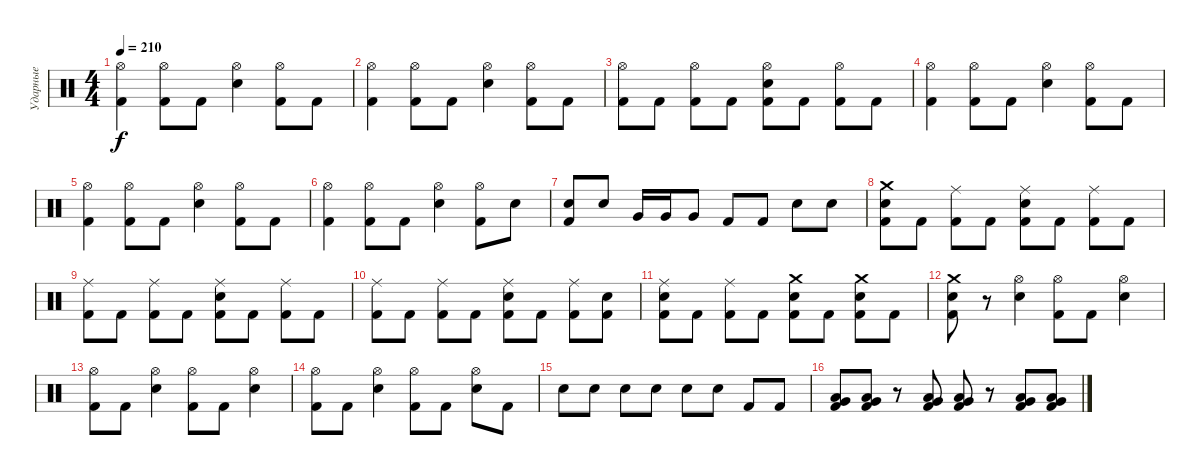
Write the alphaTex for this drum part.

\track ("Ударные" "Ударные") {instrument percussion}
\staff {score}
\articulation defaults
\ts (4 4)
\tempo 210
\clef neutral
\ks c
("Hi-Hat (open)" "Kick (hit) 2").4{dy f} ("Hi-Hat (open)" "Kick (hit) 2").8 "Kick (hit) 2".8 ("Hi-Hat (open)" "Snare (hit) 2").4 ("Hi-Hat (open)" "Kick (hit) 2").8 "Kick (hit) 2".8 |
("Hi-Hat (open)" "Kick (hit) 2").4 ("Hi-Hat (open)" "Kick (hit) 2").8 "Kick (hit) 2".8 ("Hi-Hat (open)" "Snare (hit) 2").4 ("Hi-Hat (open)" "Kick (hit) 2").8 "Kick (hit) 2".8 |
("Hi-Hat (open)" "Kick (hit) 2").8 "Kick (hit) 2".8 ("Hi-Hat (open)" "Kick (hit) 2").8 "Kick (hit) 2".8 ("Hi-Hat (open)" "Snare (hit) 2" "Kick (hit) 2").8 "Kick (hit) 2".8 ("Hi-Hat (open)" "Kick (hit) 2").8 "Kick (hit) 2".8 |
("Hi-Hat (open)" "Kick (hit) 2").4 ("Hi-Hat (open)" "Kick (hit) 2").8 "Kick (hit) 2".8 ("Hi-Hat (open)" "Snare (hit) 2").4 ("Hi-Hat (open)" "Kick (hit) 2").8 "Kick (hit) 2".8 |
("Hi-Hat (open)" "Kick (hit) 2").4 ("Hi-Hat (open)" "Kick (hit) 2").8 "Kick (hit) 2".8 ("Hi-Hat (open)" "Snare (hit) 2").4 ("Hi-Hat (open)" "Kick (hit) 2").8 "Kick (hit) 2".8 |
("Hi-Hat (open)" "Kick (hit) 2").4 ("Hi-Hat (open)" "Kick (hit) 2").8 "Kick (hit) 2".8 ("Hi-Hat (open)" "Snare (hit) 2").4 ("Hi-Hat (open)" "Kick (hit) 2").8 "Snare (hit) 2".8 |
("Snare (hit) 2" "Kick (hit) 2").8 "Snare (hit) 2".8 "Very Low Tom (hit)".16 "Very Low Tom (hit)".16 "Very Low Tom (hit)".8 "Kick (hit) 2".8 "Kick (hit) 2".8 "Snare (hit) 2".8 "Snare (hit) 2".8 |
("Crash medium (hit)" "Snare (hit) 2" "Kick (hit) 2").8 "Kick (hit) 2".8 ("Ride (middle)" "Kick (hit) 2").8 "Kick (hit) 2".8 ("Ride (middle)" "Snare (hit) 2" "Kick (hit) 2").8 "Kick (hit) 2".8 ("Ride (middle)" "Kick (hit) 2").8 "Kick (hit) 2".8 |
("Ride (middle)" "Kick (hit) 2").8 "Kick (hit) 2".8 ("Ride (middle)" "Kick (hit) 2").8 "Kick (hit) 2".8 ("Ride (middle)" "Snare (hit) 2" "Kick (hit) 2").8 "Kick (hit) 2".8 ("Ride (middle)" "Kick (hit) 2").8 "Kick (hit) 2".8 |
("Ride (middle)" "Kick (hit) 2").8 "Kick (hit) 2".8 ("Ride (middle)" "Kick (hit) 2").8 "Kick (hit) 2".8 ("Ride (middle)" "Snare (hit) 2" "Kick (hit) 2").8 "Kick (hit) 2".8 ("Ride (middle)" "Kick (hit) 2").8 ("Snare (hit) 2" "Kick (hit) 2").8 |
("Ride (middle)" "Snare (hit) 2" "Kick (hit) 2").8 "Kick (hit) 2".8 ("Ride (middle)" "Kick (hit) 2").8 "Kick (hit) 2".8 ("Crash medium (hit)" "Snare (hit) 2" "Kick (hit) 2").8 "Kick (hit) 2".8 ("Crash medium (hit)" "Snare (hit) 2" "Kick (hit) 2").8 "Kick (hit) 2".8 |
("Crash medium (hit)" "Snare (hit) 2" "Kick (hit) 2").8 r.8 ("Hi-Hat (open)" "Snare (hit) 2").4 ("Hi-Hat (open)" "Kick (hit) 2").8 "Kick (hit) 2".8 ("Hi-Hat (open)" "Snare (hit) 2").4 |
("Hi-Hat (open)" "Kick (hit) 2").8 "Kick (hit) 2".8 ("Hi-Hat (open)" "Snare (hit) 2").4 ("Hi-Hat (open)" "Kick (hit) 2").8 "Kick (hit) 2".8 ("Hi-Hat (open)" "Snare (hit) 2").4 |
("Hi-Hat (open)" "Kick (hit) 2").8 "Kick (hit) 2".8 ("Hi-Hat (open)" "Snare (hit) 2").4 ("Hi-Hat (open)" "Kick (hit) 2").8 "Kick (hit) 2".8 ("Hi-Hat (open)" "Snare (hit) 2").8 "Kick (hit) 2".8 |
"Snare (hit) 2".8 "Snare (hit) 2".8 "Snare (hit) 2".8 "Snare (hit) 2".8 "Snare (hit) 2".8 "Snare (hit) 2".8 "Kick (hit) 2".8 "Kick (hit) 2".8 |
("Very Low Tom (hit)" "Low Floor Tom (hit)" "Kick (hit) 2").8 ("Very Low Tom (hit)" "Low Floor Tom (hit)" "Kick (hit) 2").8 r.8 ("Very Low Tom (hit)" "Low Floor Tom (hit)" "Kick (hit) 2").8 ("Very Low Tom (hit)" "Low Floor Tom (hit)" "Kick (hit) 2").8 r.8 ("Very Low Tom (hit)" "Low Floor Tom (hit)" "Kick (hit) 2").8 ("Very Low Tom (hit)" "Low Floor Tom (hit)" "Kick (hit) 2").8
